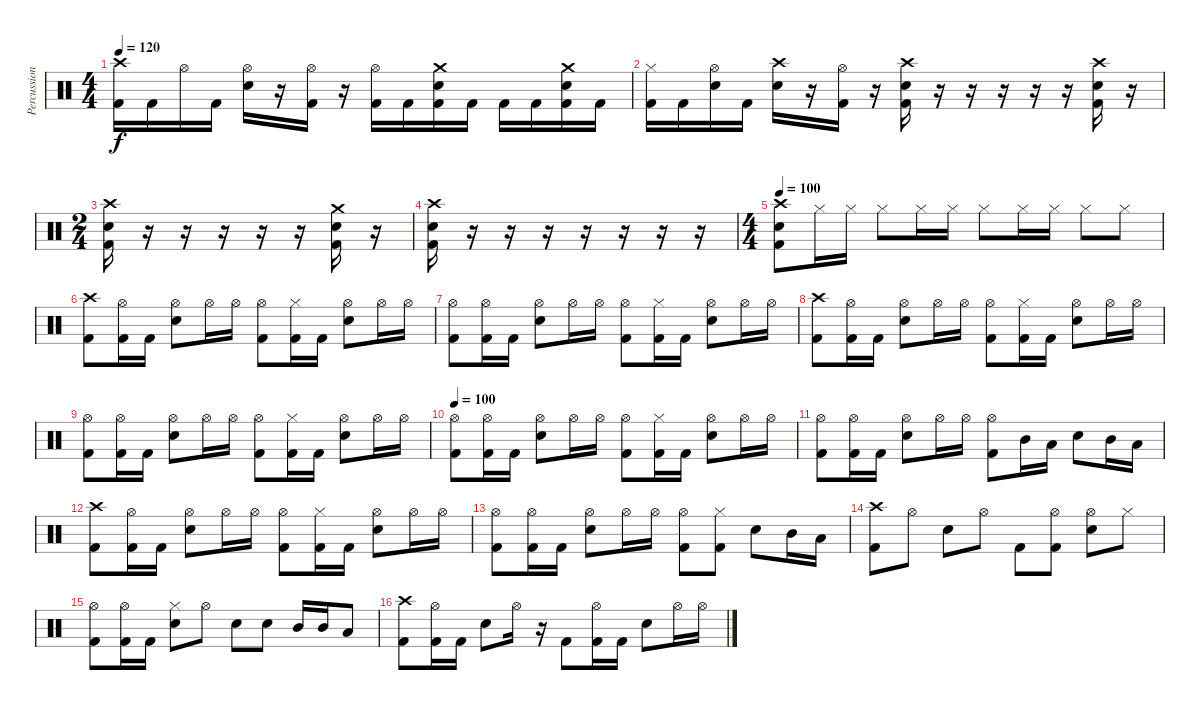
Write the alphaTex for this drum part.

\track ("Percussion" "Percussion") {instrument percussion}
\staff {score}
\articulation defaults
\ts (4 4)
\tempo 120
\clef neutral
\ks c
("Crash high (hit)" "Kick (hit) 2").16{dy f} "Kick (hit) 2".16 "Hi-Hat (open)".16 "Kick (hit) 2".16 ("Hi-Hat (open)" "Snare (hit) 2").16 r.16 ("Hi-Hat (open)" "Kick (hit) 2").16 r.16 ("Hi-Hat (open)" "Kick (hit) 2").16 "Kick (hit) 2".16 ("Crash medium (hit)" "Snare (hit) 2" "Kick (hit) 2").16 "Kick (hit) 2".16 "Kick (hit) 2".16 "Kick (hit) 2".16 ("Crash medium (hit)" "Snare (hit) 2" "Kick (hit) 2").16 "Kick (hit) 2".16 |
("Hi-Hat (closed)" "Kick (hit) 2").16 "Kick (hit) 2".16 ("Hi-Hat (open)" "Snare (hit) 2").16 "Kick (hit) 2".16 ("Crash high (hit)" "Snare (hit) 2").16 r.16 ("Hi-Hat (open)" "Kick (hit) 2").16 r.16 ("Crash high (hit)" "Snare (hit) 2" "Kick (hit) 2").16 r.16 r.16 r.16 r.16 r.16 ("Crash high (hit)" "Snare (hit) 2" "Kick (hit) 2").16 r.16 |
\ts (2 4)
("Crash high (hit)" "Snare (hit) 2" "Kick (hit) 2").16 r.16 r.16 r.16 r.16 r.16 ("Crash medium (hit)" "Snare (hit) 2" "Kick (hit) 2").16 r.16 |
("Crash high (hit)" "Snare (hit) 2" "Kick (hit) 2").16 r.16 r.16 r.16 r.16 r.16 r.16 r.16 |
\ts (4 4)
\tempo 100
("Crash high (hit)" "Snare (hit) 2" "Kick (hit) 2").8 "Hi-Hat (closed)".16 "Hi-Hat (closed)".16 "Hi-Hat (closed)".8 "Hi-Hat (closed)".16 "Hi-Hat (closed)".16 "Hi-Hat (closed)".8 "Hi-Hat (closed)".16 "Hi-Hat (closed)".16 "Hi-Hat (closed)".8 "Hi-Hat (closed)".8 |
("Crash high (hit)" "Kick (hit) 2").8 ("Hi-Hat (open)" "Kick (hit) 2").16 "Kick (hit) 2".16 ("Hi-Hat (open)" "Snare (hit) 2").8 "Hi-Hat (open)".16 "Hi-Hat (open)".16 ("Hi-Hat (open)" "Kick (hit) 2").8 ("Hi-Hat (closed)" "Kick (hit) 2").16 "Kick (hit) 2".16 ("Hi-Hat (open)" "Snare (hit) 2").8 "Hi-Hat (open)".16 "Hi-Hat (open)".16 |
("Hi-Hat (open)" "Kick (hit) 2").8 ("Hi-Hat (open)" "Kick (hit) 2").16 "Kick (hit) 2".16 ("Hi-Hat (open)" "Snare (hit) 2").8 "Hi-Hat (open)".16 "Hi-Hat (open)".16 ("Hi-Hat (open)" "Kick (hit) 2").8 ("Hi-Hat (closed)" "Kick (hit) 2").16 "Kick (hit) 2".16 ("Hi-Hat (open)" "Snare (hit) 2").8 "Hi-Hat (open)".16 "Hi-Hat (open)".16 |
("Crash high (hit)" "Kick (hit) 2").8 ("Hi-Hat (open)" "Kick (hit) 2").16 "Kick (hit) 2".16 ("Hi-Hat (open)" "Snare (hit) 2").8 "Hi-Hat (open)".16 "Hi-Hat (open)".16 ("Hi-Hat (open)" "Kick (hit) 2").8 ("Hi-Hat (closed)" "Kick (hit) 2").16 "Kick (hit) 2".16 ("Hi-Hat (open)" "Snare (hit) 2").8 "Hi-Hat (open)".16 "Hi-Hat (open)".16 |
("Hi-Hat (open)" "Kick (hit) 2").8 ("Hi-Hat (open)" "Kick (hit) 2").16 "Kick (hit) 2".16 ("Hi-Hat (open)" "Snare (hit) 2").8 "Hi-Hat (open)".16 "Hi-Hat (open)".16 ("Hi-Hat (open)" "Kick (hit) 2").8 ("Hi-Hat (closed)" "Kick (hit) 2").16 "Kick (hit) 2".16 ("Hi-Hat (open)" "Snare (hit) 2").8 "Hi-Hat (open)".16 "Hi-Hat (open)".16 |
\tempo 100
("Hi-Hat (open)" "Kick (hit) 2").8 ("Hi-Hat (open)" "Kick (hit) 2").16 "Kick (hit) 2".16 ("Hi-Hat (open)" "Snare (hit) 2").8 "Hi-Hat (open)".16 "Hi-Hat (open)".16 ("Hi-Hat (open)" "Kick (hit) 2").8 ("Hi-Hat (closed)" "Kick (hit) 2").16 "Kick (hit) 2".16 ("Hi-Hat (open)" "Snare (hit) 2").8 "Hi-Hat (open)".16 "Hi-Hat (open)".16 |
("Hi-Hat (open)" "Kick (hit) 2").8 ("Hi-Hat (open)" "Kick (hit) 2").16 "Kick (hit) 2".16 ("Hi-Hat (open)" "Snare (hit) 2").8 "Hi-Hat (open)".16 "Hi-Hat (open)".16 ("Hi-Hat (open)" "Kick (hit) 2").8 "Mid Tom (hit)".16 "Low Tom (hit)".16 "Snare (hit) 2".8 "Mid Tom (hit)".16 "Low Tom (hit)".16 |
("Crash high (hit)" "Kick (hit) 2").8 ("Hi-Hat (open)" "Kick (hit) 2").16 "Kick (hit) 2".16 ("Hi-Hat (open)" "Snare (hit) 2").8 "Hi-Hat (open)".16 "Hi-Hat (open)".16 ("Hi-Hat (open)" "Kick (hit) 2").8 ("Hi-Hat (closed)" "Kick (hit) 2").16 "Kick (hit) 2".16 ("Hi-Hat (open)" "Snare (hit) 2").8 "Hi-Hat (open)".16 "Hi-Hat (open)".16 |
("Hi-Hat (open)" "Kick (hit) 2").8 ("Hi-Hat (open)" "Kick (hit) 2").16 "Kick (hit) 2".16 ("Hi-Hat (open)" "Snare (hit) 2").8 "Hi-Hat (open)".16 "Hi-Hat (open)".16 ("Hi-Hat (open)" "Kick (hit) 2").8 ("Hi-Hat (closed)" "Kick (hit) 2").8 "Snare (hit) 2".8 "Mid Tom (hit)".16 "Low Tom (hit)".16 |
("Crash high (hit)" "Kick (hit) 2").8 "Hi-Hat (open)".8 "Snare (hit) 2".8 "Hi-Hat (open)".8 "Kick (hit) 2".8 ("Hi-Hat (open)" "Kick (hit) 2").8 ("Hi-Hat (open)" "Snare (hit) 2").8 "Hi-Hat (closed)".8 |
("Hi-Hat (open)" "Kick (hit) 2").8 ("Hi-Hat (open)" "Kick (hit) 2").16 "Kick (hit) 2".16 ("Hi-Hat (closed)" "Snare (hit) 2").8 "Hi-Hat (open)".8 "Snare (hit) 2".8 "Snare (hit) 2".8 "Mid Tom (hit)".16 "Mid Tom (hit)".16 "Low Tom (hit)".8 |
("Crash high (hit)" "Kick (hit) 2").8 ("Hi-Hat (open)" "Kick (hit) 2").16 "Kick (hit) 2".16 "Snare (hit) 2".8 "Hi-Hat (open)".16 r.16 "Kick (hit) 2".8 ("Hi-Hat (open)" "Kick (hit) 2").16 "Kick (hit) 2".16 "Snare (hit) 2".8 "Hi-Hat (open)".16 "Hi-Hat (open)".16
